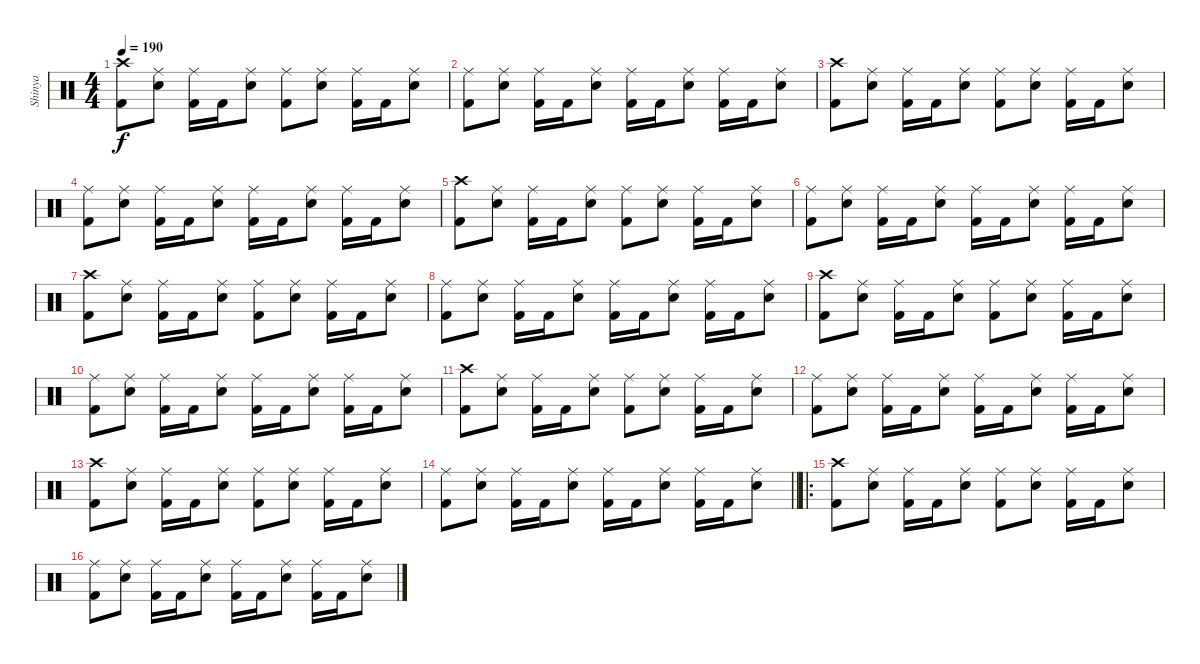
\track ("Shinya" "Shinya") {instrument percussion}
\staff {score}
\articulation defaults
\ts (4 4)
\tempo 190
\clef neutral
\ks c
("Crash high (hit)" "Kick (hit) 2").8{dy f} ("Ride (middle)" "Electric Snare (hit)").8 ("Ride (middle)" "Kick (hit) 2").16 "Kick (hit) 2".16 ("Ride (middle)" "Electric Snare (hit)").8 ("Ride (middle)" "Kick (hit) 2").8 ("Ride (middle)" "Electric Snare (hit)").8 ("Ride (middle)" "Kick (hit) 2").16 "Kick (hit) 2".16 ("Ride (middle)" "Electric Snare (hit)").8 |
("Ride (middle)" "Kick (hit) 2").8 ("Ride (middle)" "Electric Snare (hit)").8 ("Ride (middle)" "Kick (hit) 2").16 "Kick (hit) 2".16 ("Ride (middle)" "Electric Snare (hit)").8 ("Ride (middle)" "Kick (hit) 2").16 "Kick (hit) 2".16 ("Ride (middle)" "Electric Snare (hit)").8 ("Ride (middle)" "Kick (hit) 2").16 "Kick (hit) 2".16 ("Ride (middle)" "Electric Snare (hit)").8 |
("Crash high (hit)" "Kick (hit) 2").8 ("Ride (middle)" "Electric Snare (hit)").8 ("Ride (middle)" "Kick (hit) 2").16 "Kick (hit) 2".16 ("Ride (middle)" "Electric Snare (hit)").8 ("Ride (middle)" "Kick (hit) 2").8 ("Ride (middle)" "Electric Snare (hit)").8 ("Ride (middle)" "Kick (hit) 2").16 "Kick (hit) 2".16 ("Ride (middle)" "Electric Snare (hit)").8 |
("Ride (middle)" "Kick (hit) 2").8 ("Ride (middle)" "Electric Snare (hit)").8 ("Ride (middle)" "Kick (hit) 2").16 "Kick (hit) 2".16 ("Ride (middle)" "Electric Snare (hit)").8 ("Ride (middle)" "Kick (hit) 2").16 "Kick (hit) 2".16 ("Ride (middle)" "Electric Snare (hit)").8 ("Ride (middle)" "Kick (hit) 2").16 "Kick (hit) 2".16 ("Ride (middle)" "Electric Snare (hit)").8 |
("Crash high (hit)" "Kick (hit) 2").8 ("Ride (middle)" "Electric Snare (hit)").8 ("Ride (middle)" "Kick (hit) 2").16 "Kick (hit) 2".16 ("Ride (middle)" "Electric Snare (hit)").8 ("Ride (middle)" "Kick (hit) 2").8 ("Ride (middle)" "Electric Snare (hit)").8 ("Ride (middle)" "Kick (hit) 2").16 "Kick (hit) 2".16 ("Ride (middle)" "Electric Snare (hit)").8 |
("Ride (middle)" "Kick (hit) 2").8 ("Ride (middle)" "Electric Snare (hit)").8 ("Ride (middle)" "Kick (hit) 2").16 "Kick (hit) 2".16 ("Ride (middle)" "Electric Snare (hit)").8 ("Ride (middle)" "Kick (hit) 2").16 "Kick (hit) 2".16 ("Ride (middle)" "Electric Snare (hit)").8 ("Ride (middle)" "Kick (hit) 2").16 "Kick (hit) 2".16 ("Ride (middle)" "Electric Snare (hit)").8 |
("Crash high (hit)" "Kick (hit) 2").8 ("Ride (middle)" "Electric Snare (hit)").8 ("Ride (middle)" "Kick (hit) 2").16 "Kick (hit) 2".16 ("Ride (middle)" "Electric Snare (hit)").8 ("Ride (middle)" "Kick (hit) 2").8 ("Ride (middle)" "Electric Snare (hit)").8 ("Ride (middle)" "Kick (hit) 2").16 "Kick (hit) 2".16 ("Ride (middle)" "Electric Snare (hit)").8 |
("Ride (middle)" "Kick (hit) 2").8 ("Ride (middle)" "Electric Snare (hit)").8 ("Ride (middle)" "Kick (hit) 2").16 "Kick (hit) 2".16 ("Ride (middle)" "Electric Snare (hit)").8 ("Ride (middle)" "Kick (hit) 2").16 "Kick (hit) 2".16 ("Ride (middle)" "Electric Snare (hit)").8 ("Ride (middle)" "Kick (hit) 2").16 "Kick (hit) 2".16 ("Ride (middle)" "Electric Snare (hit)").8 |
("Crash high (hit)" "Kick (hit) 2").8 ("Ride (middle)" "Electric Snare (hit)").8 ("Ride (middle)" "Kick (hit) 2").16 "Kick (hit) 2".16 ("Ride (middle)" "Electric Snare (hit)").8 ("Ride (middle)" "Kick (hit) 2").8 ("Ride (middle)" "Electric Snare (hit)").8 ("Ride (middle)" "Kick (hit) 2").16 "Kick (hit) 2".16 ("Ride (middle)" "Electric Snare (hit)").8 |
("Ride (middle)" "Kick (hit) 2").8 ("Ride (middle)" "Electric Snare (hit)").8 ("Ride (middle)" "Kick (hit) 2").16 "Kick (hit) 2".16 ("Ride (middle)" "Electric Snare (hit)").8 ("Ride (middle)" "Kick (hit) 2").16 "Kick (hit) 2".16 ("Ride (middle)" "Electric Snare (hit)").8 ("Ride (middle)" "Kick (hit) 2").16 "Kick (hit) 2".16 ("Ride (middle)" "Electric Snare (hit)").8 |
("Crash high (hit)" "Kick (hit) 2").8 ("Ride (middle)" "Electric Snare (hit)").8 ("Ride (middle)" "Kick (hit) 2").16 "Kick (hit) 2".16 ("Ride (middle)" "Electric Snare (hit)").8 ("Ride (middle)" "Kick (hit) 2").8 ("Ride (middle)" "Electric Snare (hit)").8 ("Ride (middle)" "Kick (hit) 2").16 "Kick (hit) 2".16 ("Ride (middle)" "Electric Snare (hit)").8 |
("Ride (middle)" "Kick (hit) 2").8 ("Ride (middle)" "Electric Snare (hit)").8 ("Ride (middle)" "Kick (hit) 2").16 "Kick (hit) 2".16 ("Ride (middle)" "Electric Snare (hit)").8 ("Ride (middle)" "Kick (hit) 2").16 "Kick (hit) 2".16 ("Ride (middle)" "Electric Snare (hit)").8 ("Ride (middle)" "Kick (hit) 2").16 "Kick (hit) 2".16 ("Ride (middle)" "Electric Snare (hit)").8 |
("Crash high (hit)" "Kick (hit) 2").8 ("Ride (middle)" "Electric Snare (hit)").8 ("Ride (middle)" "Kick (hit) 2").16 "Kick (hit) 2".16 ("Ride (middle)" "Electric Snare (hit)").8 ("Ride (middle)" "Kick (hit) 2").8 ("Ride (middle)" "Electric Snare (hit)").8 ("Ride (middle)" "Kick (hit) 2").16 "Kick (hit) 2".16 ("Ride (middle)" "Electric Snare (hit)").8 |
\barLineRight lightlight
("Ride (middle)" "Kick (hit) 2").8 ("Ride (middle)" "Electric Snare (hit)").8 ("Ride (middle)" "Kick (hit) 2").16 "Kick (hit) 2".16 ("Ride (middle)" "Electric Snare (hit)").8 ("Ride (middle)" "Kick (hit) 2").16 "Kick (hit) 2".16 ("Ride (middle)" "Electric Snare (hit)").8 ("Ride (middle)" "Kick (hit) 2").16 "Kick (hit) 2".16 ("Ride (middle)" "Electric Snare (hit)").8 |
\ro
("Crash high (hit)" "Kick (hit) 2").8 ("Ride (middle)" "Electric Snare (hit)").8 ("Ride (middle)" "Kick (hit) 2").16 "Kick (hit) 2".16 ("Ride (middle)" "Electric Snare (hit)").8 ("Ride (middle)" "Kick (hit) 2").8 ("Ride (middle)" "Electric Snare (hit)").8 ("Ride (middle)" "Kick (hit) 2").16 "Kick (hit) 2".16 ("Ride (middle)" "Electric Snare (hit)").8 |
("Ride (middle)" "Kick (hit) 2").8 ("Ride (middle)" "Electric Snare (hit)").8 ("Ride (middle)" "Kick (hit) 2").16 "Kick (hit) 2".16 ("Ride (middle)" "Electric Snare (hit)").8 ("Ride (middle)" "Kick (hit) 2").16 "Kick (hit) 2".16 ("Ride (middle)" "Electric Snare (hit)").8 ("Ride (middle)" "Kick (hit) 2").16 "Kick (hit) 2".16 ("Ride (middle)" "Electric Snare (hit)").8
